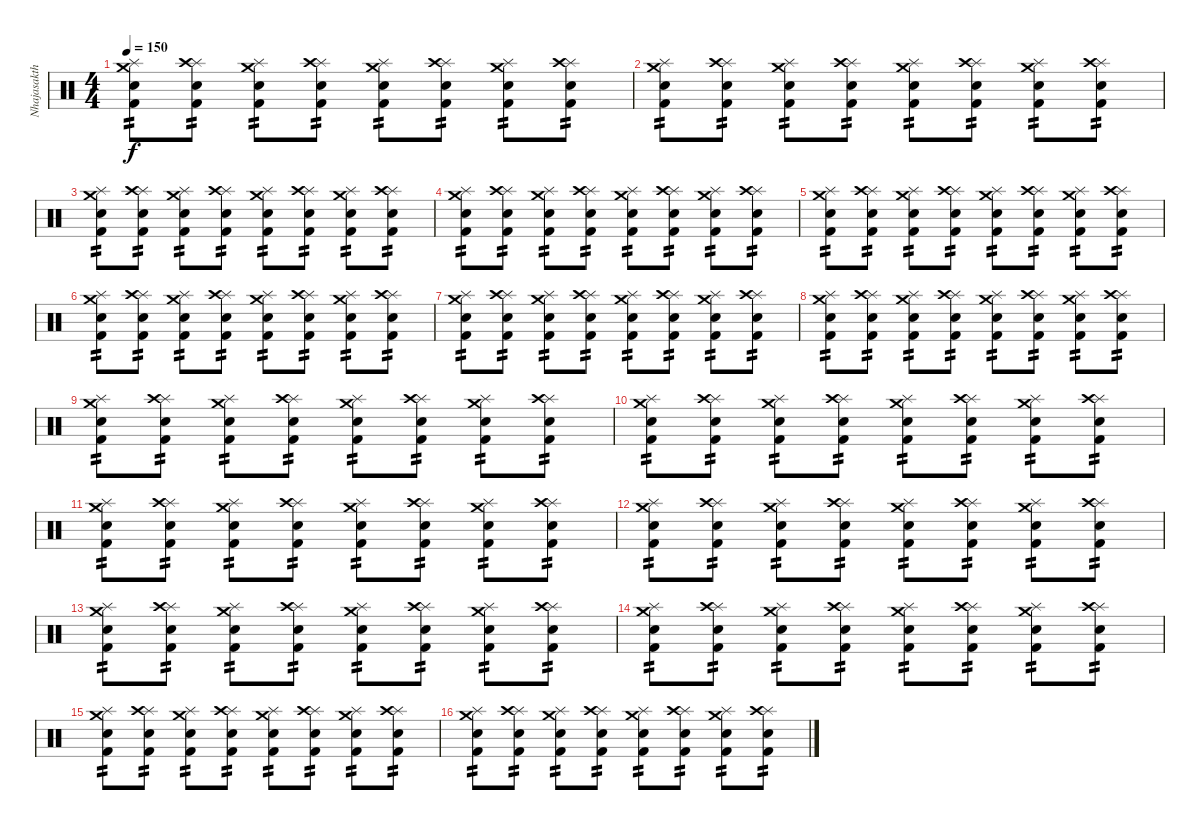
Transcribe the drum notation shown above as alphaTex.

\track ("Nhajasakthee" "Nhajasakth") {instrument percussion}
\staff {score}
\articulation defaults
\ts (4 4)
\tempo 150
\clef neutral
\ks c
("Splash (hit)" "Crash medium (hit)" "Kick (hit) 2" "Electric Snare (hit)").8{tp 2 dy f} ("Splash (hit)" "Crash high (hit)" "Kick (hit) 2" "Electric Snare (hit)").8{tp 2} ("Splash (hit)" "Crash medium (hit)" "Kick (hit) 2" "Electric Snare (hit)").8{tp 2} ("Splash (hit)" "Crash high (hit)" "Kick (hit) 2" "Electric Snare (hit)").8{tp 2} ("Splash (hit)" "Crash medium (hit)" "Kick (hit) 2" "Electric Snare (hit)").8{tp 2} ("Splash (hit)" "Crash high (hit)" "Kick (hit) 2" "Electric Snare (hit)").8{tp 2} ("Splash (hit)" "Crash medium (hit)" "Kick (hit) 2" "Electric Snare (hit)").8{tp 2} ("Splash (hit)" "Crash high (hit)" "Kick (hit) 2" "Electric Snare (hit)").8{tp 2} |
("Splash (hit)" "Crash medium (hit)" "Kick (hit) 2" "Electric Snare (hit)").8{tp 2} ("Splash (hit)" "Crash high (hit)" "Kick (hit) 2" "Electric Snare (hit)").8{tp 2} ("Splash (hit)" "Crash medium (hit)" "Kick (hit) 2" "Electric Snare (hit)").8{tp 2} ("Splash (hit)" "Crash high (hit)" "Kick (hit) 2" "Electric Snare (hit)").8{tp 2} ("Splash (hit)" "Crash medium (hit)" "Kick (hit) 2" "Electric Snare (hit)").8{tp 2} ("Splash (hit)" "Crash high (hit)" "Kick (hit) 2" "Electric Snare (hit)").8{tp 2} ("Splash (hit)" "Crash medium (hit)" "Kick (hit) 2" "Electric Snare (hit)").8{tp 2} ("Splash (hit)" "Crash high (hit)" "Kick (hit) 2" "Electric Snare (hit)").8{tp 2} |
("Splash (hit)" "Crash medium (hit)" "Kick (hit) 2" "Electric Snare (hit)").8{tp 2} ("Splash (hit)" "Crash high (hit)" "Kick (hit) 2" "Electric Snare (hit)").8{tp 2} ("Splash (hit)" "Crash medium (hit)" "Kick (hit) 2" "Electric Snare (hit)").8{tp 2} ("Splash (hit)" "Crash high (hit)" "Kick (hit) 2" "Electric Snare (hit)").8{tp 2} ("Splash (hit)" "Crash medium (hit)" "Kick (hit) 2" "Electric Snare (hit)").8{tp 2} ("Splash (hit)" "Crash high (hit)" "Kick (hit) 2" "Electric Snare (hit)").8{tp 2} ("Splash (hit)" "Crash medium (hit)" "Kick (hit) 2" "Electric Snare (hit)").8{tp 2} ("Splash (hit)" "Crash high (hit)" "Kick (hit) 2" "Electric Snare (hit)").8{tp 2} |
("Splash (hit)" "Crash medium (hit)" "Kick (hit) 2" "Electric Snare (hit)").8{tp 2} ("Splash (hit)" "Crash high (hit)" "Kick (hit) 2" "Electric Snare (hit)").8{tp 2} ("Splash (hit)" "Crash medium (hit)" "Kick (hit) 2" "Electric Snare (hit)").8{tp 2} ("Splash (hit)" "Crash high (hit)" "Kick (hit) 2" "Electric Snare (hit)").8{tp 2} ("Splash (hit)" "Crash medium (hit)" "Kick (hit) 2" "Electric Snare (hit)").8{tp 2} ("Splash (hit)" "Crash high (hit)" "Kick (hit) 2" "Electric Snare (hit)").8{tp 2} ("Splash (hit)" "Crash medium (hit)" "Kick (hit) 2" "Electric Snare (hit)").8{tp 2} ("Splash (hit)" "Crash high (hit)" "Kick (hit) 2" "Electric Snare (hit)").8{tp 2} |
("Splash (hit)" "Crash medium (hit)" "Kick (hit) 2" "Electric Snare (hit)").8{tp 2} ("Splash (hit)" "Crash high (hit)" "Kick (hit) 2" "Electric Snare (hit)").8{tp 2} ("Splash (hit)" "Crash medium (hit)" "Kick (hit) 2" "Electric Snare (hit)").8{tp 2} ("Splash (hit)" "Crash high (hit)" "Kick (hit) 2" "Electric Snare (hit)").8{tp 2} ("Splash (hit)" "Crash medium (hit)" "Kick (hit) 2" "Electric Snare (hit)").8{tp 2} ("Splash (hit)" "Crash high (hit)" "Kick (hit) 2" "Electric Snare (hit)").8{tp 2} ("Splash (hit)" "Crash medium (hit)" "Kick (hit) 2" "Electric Snare (hit)").8{tp 2} ("Splash (hit)" "Crash high (hit)" "Kick (hit) 2" "Electric Snare (hit)").8{tp 2} |
("Splash (hit)" "Crash medium (hit)" "Kick (hit) 2" "Electric Snare (hit)").8{tp 2} ("Splash (hit)" "Crash high (hit)" "Kick (hit) 2" "Electric Snare (hit)").8{tp 2} ("Splash (hit)" "Crash medium (hit)" "Kick (hit) 2" "Electric Snare (hit)").8{tp 2} ("Splash (hit)" "Crash high (hit)" "Kick (hit) 2" "Electric Snare (hit)").8{tp 2} ("Splash (hit)" "Crash medium (hit)" "Kick (hit) 2" "Electric Snare (hit)").8{tp 2} ("Splash (hit)" "Crash high (hit)" "Kick (hit) 2" "Electric Snare (hit)").8{tp 2} ("Splash (hit)" "Crash medium (hit)" "Kick (hit) 2" "Electric Snare (hit)").8{tp 2} ("Splash (hit)" "Crash high (hit)" "Kick (hit) 2" "Electric Snare (hit)").8{tp 2} |
("Splash (hit)" "Crash medium (hit)" "Kick (hit) 2" "Electric Snare (hit)").8{tp 2} ("Splash (hit)" "Crash high (hit)" "Kick (hit) 2" "Electric Snare (hit)").8{tp 2} ("Splash (hit)" "Crash medium (hit)" "Kick (hit) 2" "Electric Snare (hit)").8{tp 2} ("Splash (hit)" "Crash high (hit)" "Kick (hit) 2" "Electric Snare (hit)").8{tp 2} ("Splash (hit)" "Crash medium (hit)" "Kick (hit) 2" "Electric Snare (hit)").8{tp 2} ("Splash (hit)" "Crash high (hit)" "Kick (hit) 2" "Electric Snare (hit)").8{tp 2} ("Splash (hit)" "Crash medium (hit)" "Kick (hit) 2" "Electric Snare (hit)").8{tp 2} ("Splash (hit)" "Crash high (hit)" "Kick (hit) 2" "Electric Snare (hit)").8{tp 2} |
("Splash (hit)" "Crash medium (hit)" "Kick (hit) 2" "Electric Snare (hit)").8{tp 2} ("Splash (hit)" "Crash high (hit)" "Kick (hit) 2" "Electric Snare (hit)").8{tp 2} ("Splash (hit)" "Crash medium (hit)" "Kick (hit) 2" "Electric Snare (hit)").8{tp 2} ("Splash (hit)" "Crash high (hit)" "Kick (hit) 2" "Electric Snare (hit)").8{tp 2} ("Splash (hit)" "Crash medium (hit)" "Kick (hit) 2" "Electric Snare (hit)").8{tp 2} ("Splash (hit)" "Crash high (hit)" "Kick (hit) 2" "Electric Snare (hit)").8{tp 2} ("Splash (hit)" "Crash medium (hit)" "Kick (hit) 2" "Electric Snare (hit)").8{tp 2} ("Splash (hit)" "Crash high (hit)" "Kick (hit) 2" "Electric Snare (hit)").8{tp 2} |
("Splash (hit)" "Crash medium (hit)" "Kick (hit) 2" "Electric Snare (hit)").8{tp 2} ("Splash (hit)" "Crash high (hit)" "Kick (hit) 2" "Electric Snare (hit)").8{tp 2} ("Splash (hit)" "Crash medium (hit)" "Kick (hit) 2" "Electric Snare (hit)").8{tp 2} ("Splash (hit)" "Crash high (hit)" "Kick (hit) 2" "Electric Snare (hit)").8{tp 2} ("Splash (hit)" "Crash medium (hit)" "Kick (hit) 2" "Electric Snare (hit)").8{tp 2} ("Splash (hit)" "Crash high (hit)" "Kick (hit) 2" "Electric Snare (hit)").8{tp 2} ("Splash (hit)" "Crash medium (hit)" "Kick (hit) 2" "Electric Snare (hit)").8{tp 2} ("Splash (hit)" "Crash high (hit)" "Kick (hit) 2" "Electric Snare (hit)").8{tp 2} |
("Splash (hit)" "Crash medium (hit)" "Kick (hit) 2" "Electric Snare (hit)").8{tp 2} ("Splash (hit)" "Crash high (hit)" "Kick (hit) 2" "Electric Snare (hit)").8{tp 2} ("Splash (hit)" "Crash medium (hit)" "Kick (hit) 2" "Electric Snare (hit)").8{tp 2} ("Splash (hit)" "Crash high (hit)" "Kick (hit) 2" "Electric Snare (hit)").8{tp 2} ("Splash (hit)" "Crash medium (hit)" "Kick (hit) 2" "Electric Snare (hit)").8{tp 2} ("Splash (hit)" "Crash high (hit)" "Kick (hit) 2" "Electric Snare (hit)").8{tp 2} ("Splash (hit)" "Crash medium (hit)" "Kick (hit) 2" "Electric Snare (hit)").8{tp 2} ("Splash (hit)" "Crash high (hit)" "Kick (hit) 2" "Electric Snare (hit)").8{tp 2} |
("Splash (hit)" "Crash medium (hit)" "Kick (hit) 2" "Electric Snare (hit)").8{tp 2} ("Splash (hit)" "Crash high (hit)" "Kick (hit) 2" "Electric Snare (hit)").8{tp 2} ("Splash (hit)" "Crash medium (hit)" "Kick (hit) 2" "Electric Snare (hit)").8{tp 2} ("Splash (hit)" "Crash high (hit)" "Kick (hit) 2" "Electric Snare (hit)").8{tp 2} ("Splash (hit)" "Crash medium (hit)" "Kick (hit) 2" "Electric Snare (hit)").8{tp 2} ("Splash (hit)" "Crash high (hit)" "Kick (hit) 2" "Electric Snare (hit)").8{tp 2} ("Splash (hit)" "Crash medium (hit)" "Kick (hit) 2" "Electric Snare (hit)").8{tp 2} ("Splash (hit)" "Crash high (hit)" "Kick (hit) 2" "Electric Snare (hit)").8{tp 2} |
("Splash (hit)" "Crash medium (hit)" "Kick (hit) 2" "Electric Snare (hit)").8{tp 2} ("Splash (hit)" "Crash high (hit)" "Kick (hit) 2" "Electric Snare (hit)").8{tp 2} ("Splash (hit)" "Crash medium (hit)" "Kick (hit) 2" "Electric Snare (hit)").8{tp 2} ("Splash (hit)" "Crash high (hit)" "Kick (hit) 2" "Electric Snare (hit)").8{tp 2} ("Splash (hit)" "Crash medium (hit)" "Kick (hit) 2" "Electric Snare (hit)").8{tp 2} ("Splash (hit)" "Crash high (hit)" "Kick (hit) 2" "Electric Snare (hit)").8{tp 2} ("Splash (hit)" "Crash medium (hit)" "Kick (hit) 2" "Electric Snare (hit)").8{tp 2} ("Splash (hit)" "Crash high (hit)" "Kick (hit) 2" "Electric Snare (hit)").8{tp 2} |
("Splash (hit)" "Crash medium (hit)" "Kick (hit) 2" "Electric Snare (hit)").8{tp 2} ("Splash (hit)" "Crash high (hit)" "Kick (hit) 2" "Electric Snare (hit)").8{tp 2} ("Splash (hit)" "Crash medium (hit)" "Kick (hit) 2" "Electric Snare (hit)").8{tp 2} ("Splash (hit)" "Crash high (hit)" "Kick (hit) 2" "Electric Snare (hit)").8{tp 2} ("Splash (hit)" "Crash medium (hit)" "Kick (hit) 2" "Electric Snare (hit)").8{tp 2} ("Splash (hit)" "Crash high (hit)" "Kick (hit) 2" "Electric Snare (hit)").8{tp 2} ("Splash (hit)" "Crash medium (hit)" "Kick (hit) 2" "Electric Snare (hit)").8{tp 2} ("Splash (hit)" "Crash high (hit)" "Kick (hit) 2" "Electric Snare (hit)").8{tp 2} |
("Splash (hit)" "Crash medium (hit)" "Kick (hit) 2" "Electric Snare (hit)").8{tp 2} ("Splash (hit)" "Crash high (hit)" "Kick (hit) 2" "Electric Snare (hit)").8{tp 2} ("Splash (hit)" "Crash medium (hit)" "Kick (hit) 2" "Electric Snare (hit)").8{tp 2} ("Splash (hit)" "Crash high (hit)" "Kick (hit) 2" "Electric Snare (hit)").8{tp 2} ("Splash (hit)" "Crash medium (hit)" "Kick (hit) 2" "Electric Snare (hit)").8{tp 2} ("Splash (hit)" "Crash high (hit)" "Kick (hit) 2" "Electric Snare (hit)").8{tp 2} ("Splash (hit)" "Crash medium (hit)" "Kick (hit) 2" "Electric Snare (hit)").8{tp 2} ("Splash (hit)" "Crash high (hit)" "Kick (hit) 2" "Electric Snare (hit)").8{tp 2} |
("Splash (hit)" "Crash medium (hit)" "Kick (hit) 2" "Electric Snare (hit)").8{tp 2} ("Splash (hit)" "Crash high (hit)" "Kick (hit) 2" "Electric Snare (hit)").8{tp 2} ("Splash (hit)" "Crash medium (hit)" "Kick (hit) 2" "Electric Snare (hit)").8{tp 2} ("Splash (hit)" "Crash high (hit)" "Kick (hit) 2" "Electric Snare (hit)").8{tp 2} ("Splash (hit)" "Crash medium (hit)" "Kick (hit) 2" "Electric Snare (hit)").8{tp 2} ("Splash (hit)" "Crash high (hit)" "Kick (hit) 2" "Electric Snare (hit)").8{tp 2} ("Splash (hit)" "Crash medium (hit)" "Kick (hit) 2" "Electric Snare (hit)").8{tp 2} ("Splash (hit)" "Crash high (hit)" "Kick (hit) 2" "Electric Snare (hit)").8{tp 2} |
("Splash (hit)" "Crash medium (hit)" "Kick (hit) 2" "Electric Snare (hit)").8{tp 2} ("Splash (hit)" "Crash high (hit)" "Kick (hit) 2" "Electric Snare (hit)").8{tp 2} ("Splash (hit)" "Crash medium (hit)" "Kick (hit) 2" "Electric Snare (hit)").8{tp 2} ("Splash (hit)" "Crash high (hit)" "Kick (hit) 2" "Electric Snare (hit)").8{tp 2} ("Splash (hit)" "Crash medium (hit)" "Kick (hit) 2" "Electric Snare (hit)").8{tp 2} ("Splash (hit)" "Crash high (hit)" "Kick (hit) 2" "Electric Snare (hit)").8{tp 2} ("Splash (hit)" "Crash medium (hit)" "Kick (hit) 2" "Electric Snare (hit)").8{tp 2} ("Splash (hit)" "Crash high (hit)" "Kick (hit) 2" "Electric Snare (hit)").8{tp 2}
